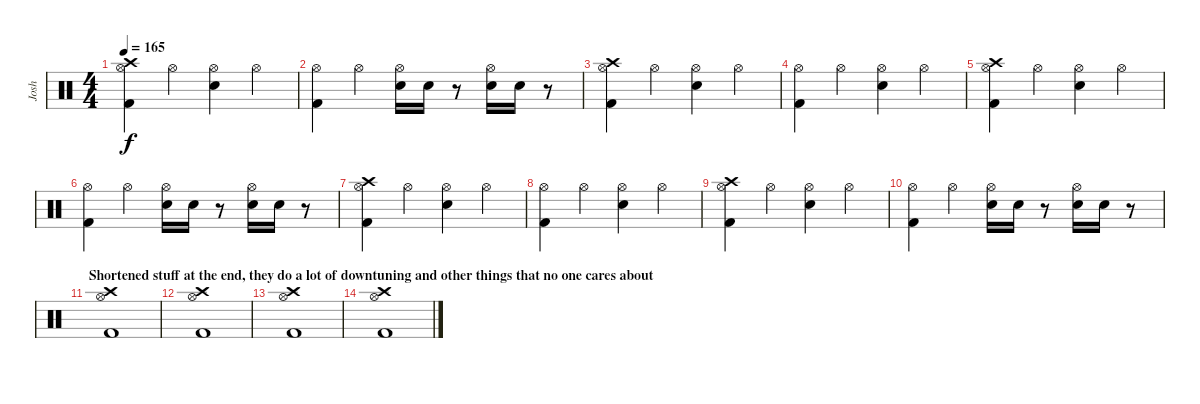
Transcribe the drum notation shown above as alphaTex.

\track ("Josh" "Josh") {instrument percussion}
\staff {score}
\articulation defaults
\ts (4 4)
\tempo 165
\clef neutral
\ks c
("Crash high (hit)" "Hi-Hat (open)" "Kick (hit) 2").4{dy f} "Hi-Hat (open)".4 ("Hi-Hat (open)" "Snare (hit) 2").4 "Hi-Hat (open)".4 |
("Hi-Hat (open)" "Kick (hit) 2").4 "Hi-Hat (open)".4 ("Hi-Hat (open)" "Snare (hit) 2").16 "Snare (hit) 2".16 r.8 ("Hi-Hat (open)" "Snare (hit) 2").16 "Snare (hit) 2".16 r.8 |
("Crash high (hit)" "Hi-Hat (open)" "Kick (hit) 2").4 "Hi-Hat (open)".4 ("Hi-Hat (open)" "Snare (hit) 2").4 "Hi-Hat (open)".4 |
("Hi-Hat (open)" "Kick (hit) 2").4 "Hi-Hat (open)".4 ("Hi-Hat (open)" "Snare (hit) 2").4 "Hi-Hat (open)".4 |
("Crash high (hit)" "Hi-Hat (open)" "Kick (hit) 2").4 "Hi-Hat (open)".4 ("Hi-Hat (open)" "Snare (hit) 2").4 "Hi-Hat (open)".4 |
("Hi-Hat (open)" "Kick (hit) 2").4 "Hi-Hat (open)".4 ("Hi-Hat (open)" "Snare (hit) 2").16 "Snare (hit) 2".16 r.8 ("Hi-Hat (open)" "Snare (hit) 2").16 "Snare (hit) 2".16 r.8 |
("Crash high (hit)" "Hi-Hat (open)" "Kick (hit) 2").4 "Hi-Hat (open)".4 ("Hi-Hat (open)" "Snare (hit) 2").4 "Hi-Hat (open)".4 |
("Hi-Hat (open)" "Kick (hit) 2").4 "Hi-Hat (open)".4 ("Hi-Hat (open)" "Snare (hit) 2").4 "Hi-Hat (open)".4 |
("Crash high (hit)" "Hi-Hat (open)" "Kick (hit) 2").4 "Hi-Hat (open)".4 ("Hi-Hat (open)" "Snare (hit) 2").4 "Hi-Hat (open)".4 |
("Hi-Hat (open)" "Kick (hit) 2").4 "Hi-Hat (open)".4 ("Hi-Hat (open)" "Snare (hit) 2").16 "Snare (hit) 2".16 r.8 ("Hi-Hat (open)" "Snare (hit) 2").16 "Snare (hit) 2".16 r.8 |
\section ("" "Shortened stuff at the end, they do a lot of downtuning and other things that no one cares about")
("Crash high (hit)" "Hi-Hat (open)" "Kick (hit) 2").1 |
("Crash high (hit)" "Hi-Hat (open)" "Kick (hit) 2").1 |
("Crash high (hit)" "Hi-Hat (open)" "Kick (hit) 2").1 |
("Crash high (hit)" "Hi-Hat (open)" "Kick (hit) 2").1
